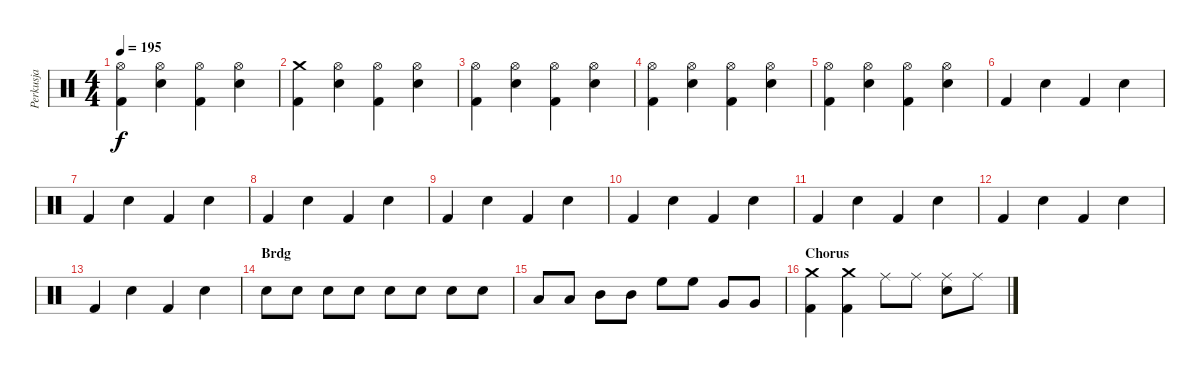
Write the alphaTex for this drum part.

\track ("Perkusja" "Perkusja") {instrument percussion}
\staff {score}
\articulation defaults
\ts (4 4)
\tempo 195
\clef neutral
\ks c
("Hi-Hat (open)" "Kick (hit) 2").4{dy f} ("Hi-Hat (open)" "Snare (hit) 2").4 ("Hi-Hat (open)" "Kick (hit) 2").4 ("Hi-Hat (open)" "Snare (hit) 2").4 |
("Crash medium (hit)" "Kick (hit) 2").4 ("Hi-Hat (open)" "Snare (hit) 2").4 ("Hi-Hat (open)" "Kick (hit) 2").4 ("Hi-Hat (open)" "Snare (hit) 2").4 |
("Hi-Hat (open)" "Kick (hit) 2").4 ("Hi-Hat (open)" "Snare (hit) 2").4 ("Hi-Hat (open)" "Kick (hit) 2").4 ("Hi-Hat (open)" "Snare (hit) 2").4 |
("Hi-Hat (open)" "Kick (hit) 2").4 ("Hi-Hat (open)" "Snare (hit) 2").4 ("Hi-Hat (open)" "Kick (hit) 2").4 ("Hi-Hat (open)" "Snare (hit) 2").4 |
("Hi-Hat (open)" "Kick (hit) 2").4 ("Hi-Hat (open)" "Snare (hit) 2").4 ("Hi-Hat (open)" "Kick (hit) 2").4 ("Hi-Hat (open)" "Snare (hit) 2").4 |
"Kick (hit) 2".4 "Snare (hit) 2".4 "Kick (hit) 2".4 "Snare (hit) 2".4 |
"Kick (hit) 2".4 "Snare (hit) 2".4 "Kick (hit) 2".4 "Snare (hit) 2".4 |
"Kick (hit) 2".4 "Snare (hit) 2".4 "Kick (hit) 2".4 "Snare (hit) 2".4 |
"Kick (hit) 2".4 "Snare (hit) 2".4 "Kick (hit) 2".4 "Snare (hit) 2".4 |
"Kick (hit) 2".4 "Snare (hit) 2".4 "Kick (hit) 2".4 "Snare (hit) 2".4 |
"Kick (hit) 2".4 "Snare (hit) 2".4 "Kick (hit) 2".4 "Snare (hit) 2".4 |
"Kick (hit) 2".4 "Snare (hit) 2".4 "Kick (hit) 2".4 "Snare (hit) 2".4 |
"Kick (hit) 2".4 "Snare (hit) 2".4 "Kick (hit) 2".4 "Snare (hit) 2".4 |
\section ("" "Brdg")
"Snare (hit) 2".8 "Snare (hit) 2".8 "Snare (hit) 2".8 "Snare (hit) 2".8 "Snare (hit) 2".8 "Snare (hit) 2".8 "Snare (hit) 2".8 "Snare (hit) 2".8 |
"Low Tom (hit)".8 "Low Tom (hit)".8 "Mid Tom (hit)".8 "Mid Tom (hit)".8 "High Floor Tom (hit)".8 "High Floor Tom (hit)".8 "Very Low Tom (hit)".8 "Very Low Tom (hit)".8 |
\section ("" "Chorus")
("Crash medium (hit)" "Kick (hit) 2").4 ("Crash medium (hit)" "Kick (hit) 2").4 "Ride (middle)".8 "Ride (middle)".8 ("Ride (middle)" "Snare (hit) 2").8 "Ride (middle)".8
